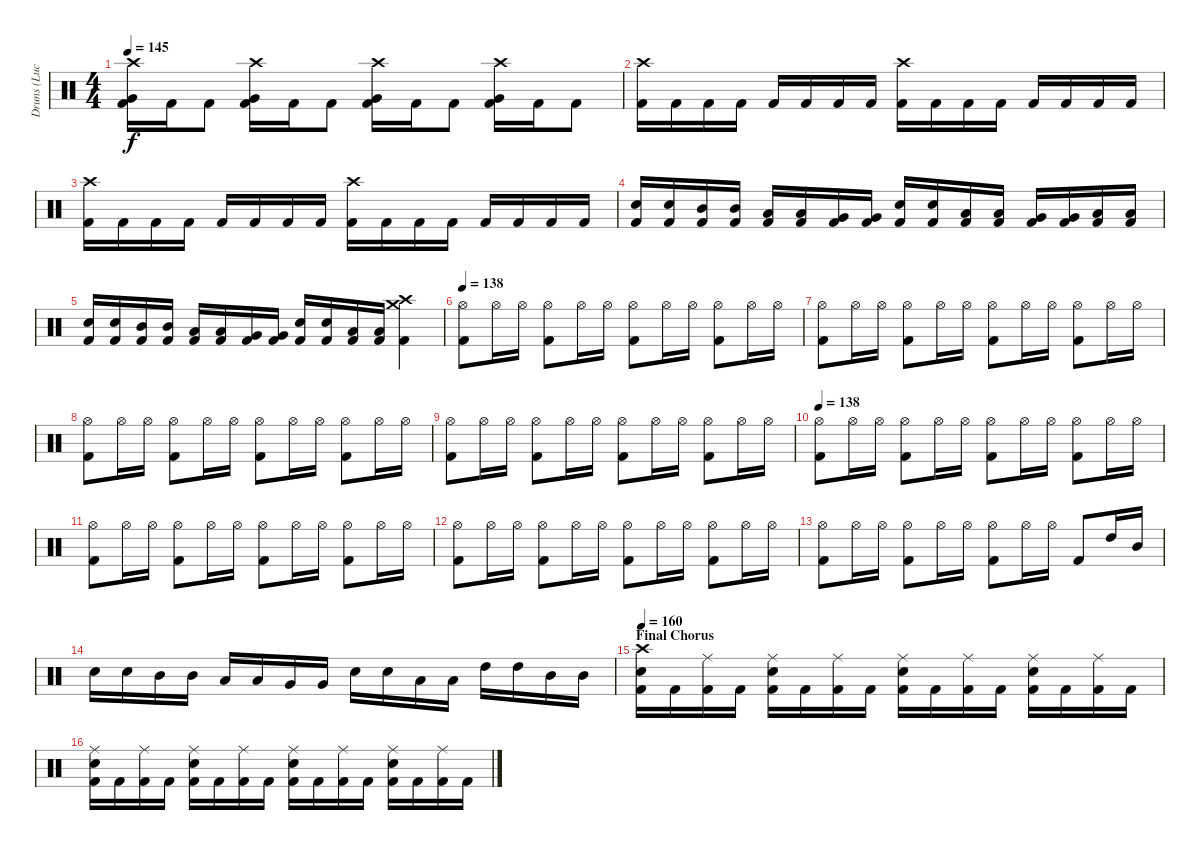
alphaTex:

\track ("Druns (Lucas Zigarti)" "Druns (Luc") {instrument percussion}
\staff {score}
\articulation defaults
\ts (4 4)
\tempo 145
\clef neutral
\ks c
("Crash high (hit)" "Very Low Tom (hit)" "Kick (hit) 2").16{dy f} "Kick (hit) 2".16 "Kick (hit) 2".8 ("Crash high (hit)" "Very Low Tom (hit)" "Kick (hit) 2").16 "Kick (hit) 2".16 "Kick (hit) 2".8 ("Crash high (hit)" "Very Low Tom (hit)" "Kick (hit) 2").16 "Kick (hit) 2".16 "Kick (hit) 2".8 ("Crash high (hit)" "Very Low Tom (hit)" "Kick (hit) 2").16 "Kick (hit) 2".16 "Kick (hit) 2".8 |
("Crash high (hit)" "Kick (hit) 2").16 "Kick (hit) 2".16 "Kick (hit) 2".16 "Kick (hit) 2".16 "Kick (hit) 2".16 "Kick (hit) 2".16 "Kick (hit) 2".16 "Kick (hit) 2".16 ("Crash high (hit)" "Kick (hit) 2").16 "Kick (hit) 2".16 "Kick (hit) 2".16 "Kick (hit) 2".16 "Kick (hit) 2".16 "Kick (hit) 2".16 "Kick (hit) 2".16 "Kick (hit) 2".16 |
("Crash high (hit)" "Kick (hit) 2").16 "Kick (hit) 2".16 "Kick (hit) 2".16 "Kick (hit) 2".16 "Kick (hit) 2".16 "Kick (hit) 2".16 "Kick (hit) 2".16 "Kick (hit) 2".16 ("Crash high (hit)" "Kick (hit) 2").16 "Kick (hit) 2".16 "Kick (hit) 2".16 "Kick (hit) 2".16 "Kick (hit) 2".16 "Kick (hit) 2".16 "Kick (hit) 2".16 "Kick (hit) 2".16 |
("Electric Snare (hit)" "Kick (hit) 2").16 ("Electric Snare (hit)" "Kick (hit) 2").16 ("Mid Tom (hit)" "Kick (hit) 2").16 ("Mid Tom (hit)" "Kick (hit) 2").16 ("Low Tom (hit)" "Kick (hit) 2").16 ("Low Tom (hit)" "Kick (hit) 2").16 ("Very Low Tom (hit)" "Kick (hit) 2").16 ("Very Low Tom (hit)" "Kick (hit) 2").16 ("Electric Snare (hit)" "Kick (hit) 2").16 ("Electric Snare (hit)" "Kick (hit) 2").16 ("Low Tom (hit)" "Kick (hit) 2").16 ("Low Tom (hit)" "Kick (hit) 2").16 ("Very Low Tom (hit)" "Kick (hit) 2").16 ("Very Low Tom (hit)" "Kick (hit) 2").16 ("Low Tom (hit)" "Kick (hit) 2").16 ("Low Tom (hit)" "Kick (hit) 2").16 |
("Electric Snare (hit)" "Kick (hit) 2").16 ("Electric Snare (hit)" "Kick (hit) 2").16 ("Mid Tom (hit)" "Kick (hit) 2").16 ("Mid Tom (hit)" "Kick (hit) 2").16 ("Low Tom (hit)" "Kick (hit) 2").16 ("Low Tom (hit)" "Kick (hit) 2").16 ("Very Low Tom (hit)" "Kick (hit) 2").16 ("Very Low Tom (hit)" "Kick (hit) 2").16 ("Electric Snare (hit)" "Kick (hit) 2").16 ("Electric Snare (hit)" "Kick (hit) 2").16 ("Low Tom (hit)" "Kick (hit) 2").16 ("Low Tom (hit)" "Kick (hit) 2").16 ("Crash high (hit)" "Crash medium (hit)" "Kick (hit) 2").4 |
\tempo 138
("Hi-Hat (open)" "Kick (hit) 2").8 "Hi-Hat (open)".16 "Hi-Hat (open)".16 ("Hi-Hat (open)" "Kick (hit) 2").8 "Hi-Hat (open)".16 "Hi-Hat (open)".16 ("Hi-Hat (open)" "Kick (hit) 2").8 "Hi-Hat (open)".16 "Hi-Hat (open)".16 ("Hi-Hat (open)" "Kick (hit) 2").8 "Hi-Hat (open)".16 "Hi-Hat (open)".16 |
("Hi-Hat (open)" "Kick (hit) 2").8 "Hi-Hat (open)".16 "Hi-Hat (open)".16 ("Hi-Hat (open)" "Kick (hit) 2").8 "Hi-Hat (open)".16 "Hi-Hat (open)".16 ("Hi-Hat (open)" "Kick (hit) 2").8 "Hi-Hat (open)".16 "Hi-Hat (open)".16 ("Hi-Hat (open)" "Kick (hit) 2").8 "Hi-Hat (open)".16 "Hi-Hat (open)".16 |
("Hi-Hat (open)" "Kick (hit) 2").8 "Hi-Hat (open)".16 "Hi-Hat (open)".16 ("Hi-Hat (open)" "Kick (hit) 2").8 "Hi-Hat (open)".16 "Hi-Hat (open)".16 ("Hi-Hat (open)" "Kick (hit) 2").8 "Hi-Hat (open)".16 "Hi-Hat (open)".16 ("Hi-Hat (open)" "Kick (hit) 2").8 "Hi-Hat (open)".16 "Hi-Hat (open)".16 |
("Hi-Hat (open)" "Kick (hit) 2").8 "Hi-Hat (open)".16 "Hi-Hat (open)".16 ("Hi-Hat (open)" "Kick (hit) 2").8 "Hi-Hat (open)".16 "Hi-Hat (open)".16 ("Hi-Hat (open)" "Kick (hit) 2").8 "Hi-Hat (open)".16 "Hi-Hat (open)".16 ("Hi-Hat (open)" "Kick (hit) 2").8 "Hi-Hat (open)".16 "Hi-Hat (open)".16 |
\tempo 138
("Hi-Hat (open)" "Kick (hit) 2").8 "Hi-Hat (open)".16 "Hi-Hat (open)".16 ("Hi-Hat (open)" "Kick (hit) 2").8 "Hi-Hat (open)".16 "Hi-Hat (open)".16 ("Hi-Hat (open)" "Kick (hit) 2").8 "Hi-Hat (open)".16 "Hi-Hat (open)".16 ("Hi-Hat (open)" "Kick (hit) 2").8 "Hi-Hat (open)".16 "Hi-Hat (open)".16 |
("Hi-Hat (open)" "Kick (hit) 2").8 "Hi-Hat (open)".16 "Hi-Hat (open)".16 ("Hi-Hat (open)" "Kick (hit) 2").8 "Hi-Hat (open)".16 "Hi-Hat (open)".16 ("Hi-Hat (open)" "Kick (hit) 2").8 "Hi-Hat (open)".16 "Hi-Hat (open)".16 ("Hi-Hat (open)" "Kick (hit) 2").8 "Hi-Hat (open)".16 "Hi-Hat (open)".16 |
("Hi-Hat (open)" "Kick (hit) 2").8 "Hi-Hat (open)".16 "Hi-Hat (open)".16 ("Hi-Hat (open)" "Kick (hit) 2").8 "Hi-Hat (open)".16 "Hi-Hat (open)".16 ("Hi-Hat (open)" "Kick (hit) 2").8 "Hi-Hat (open)".16 "Hi-Hat (open)".16 ("Hi-Hat (open)" "Kick (hit) 2").8 "Hi-Hat (open)".16 "Hi-Hat (open)".16 |
("Hi-Hat (open)" "Kick (hit) 2").8 "Hi-Hat (open)".16 "Hi-Hat (open)".16 ("Hi-Hat (open)" "Kick (hit) 2").8 "Hi-Hat (open)".16 "Hi-Hat (open)".16 ("Hi-Hat (open)" "Kick (hit) 2").8 "Hi-Hat (open)".16 "Hi-Hat (open)".16 "Kick (hit) 2".8 "High Tom (hit)".16 "Mid Tom (hit)".16 |
"Electric Snare (hit)".16 "Electric Snare (hit)".16 "Mid Tom (hit)".16 "Mid Tom (hit)".16 "Low Tom (hit)".16 "Low Tom (hit)".16 "Very Low Tom (hit)".16 "Very Low Tom (hit)".16 "Electric Snare (hit)".16 "Electric Snare (hit)".16 "Low Tom (hit)".16 "Low Tom (hit)".16 "High Tom (hit)".16 "High Tom (hit)".16 "Mid Tom (hit)".16 "Mid Tom (hit)".16 |
\section ("" "Final Chorus")
\tempo 160
("Electric Snare (hit)" "Crash high (hit)" "Kick (hit) 2").16 "Kick (hit) 2".16 ("Ride (middle)" "Kick (hit) 2").16 "Kick (hit) 2".16 ("Electric Snare (hit)" "Ride (middle)" "Kick (hit) 2").16 "Kick (hit) 2".16 ("Ride (middle)" "Kick (hit) 2").16 "Kick (hit) 2".16 ("Electric Snare (hit)" "Ride (middle)" "Kick (hit) 2").16 "Kick (hit) 2".16 ("Ride (middle)" "Kick (hit) 2").16 "Kick (hit) 2".16 ("Electric Snare (hit)" "Ride (middle)" "Kick (hit) 2").16 "Kick (hit) 2".16 ("Ride (middle)" "Kick (hit) 2").16 "Kick (hit) 2".16 |
("Electric Snare (hit)" "Ride (middle)" "Kick (hit) 2").16 "Kick (hit) 2".16 ("Ride (middle)" "Kick (hit) 2").16 "Kick (hit) 2".16 ("Electric Snare (hit)" "Ride (middle)" "Kick (hit) 2").16 "Kick (hit) 2".16 ("Ride (middle)" "Kick (hit) 2").16 "Kick (hit) 2".16 ("Electric Snare (hit)" "Ride (middle)" "Kick (hit) 2").16 "Kick (hit) 2".16 ("Ride (middle)" "Kick (hit) 2").16 "Kick (hit) 2".16 ("Electric Snare (hit)" "Ride (middle)" "Kick (hit) 2").16 "Kick (hit) 2".16 ("Ride (middle)" "Kick (hit) 2").16 "Kick (hit) 2".16
